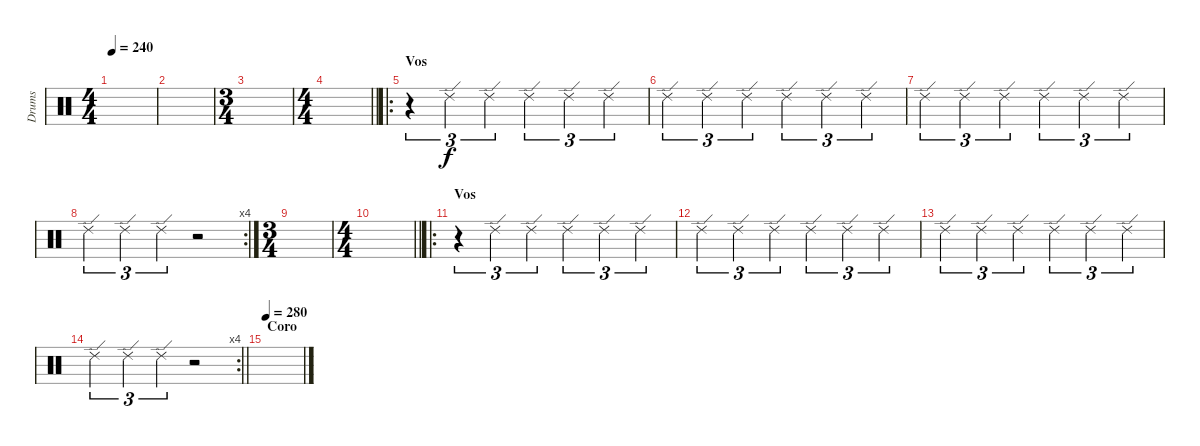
\track ("Drums" "Drums") {instrument percussion}
\staff {score}
\articulation defaults
\ts (4 4)
\tempo 240
\clef neutral
\ks c
|
|
\ts (3 4)
|
\ts (4 4)
\barLineRight lightlight
|
\ro
\section ("" "Vos")
r.4{tu (3 2)} "Ride (edge) 2".4{tu (3 2)} "Ride (edge) 2".4{tu (3 2)} "Ride (edge) 2".4{tu (3 2)} "Ride (edge) 2".4{tu (3 2)} "Ride (edge) 2".4{tu (3 2)} |
"Ride (edge) 2".4{tu (3 2)} "Ride (edge) 2".4{tu (3 2)} "Ride (edge) 2".4{tu (3 2)} "Ride (edge) 2".4{tu (3 2)} "Ride (edge) 2".4{tu (3 2)} "Ride (edge) 2".4{tu (3 2)} |
"Ride (edge) 2".4{tu (3 2)} "Ride (edge) 2".4{tu (3 2)} "Ride (edge) 2".4{tu (3 2)} "Ride (edge) 2".4{tu (3 2)} "Ride (edge) 2".4{tu (3 2)} "Ride (edge) 2".4{tu (3 2)} |
\rc 4 "Ride (edge) 2".4{tu (3 2)} "Ride (edge) 2".4{tu (3 2)} "Ride (edge) 2".4{tu (3 2)}
r.2 |
\ts (3 4)
|
\ts (4 4)
\barLineRight lightlight
|
\ro
\section ("" "Vos")
r.4{tu (3 2)} "Ride (edge) 2".4{tu (3 2)} "Ride (edge) 2".4{tu (3 2)} "Ride (edge) 2".4{tu (3 2)} "Ride (edge) 2".4{tu (3 2)} "Ride (edge) 2".4{tu (3 2)} |
"Ride (edge) 2".4{tu (3 2)} "Ride (edge) 2".4{tu (3 2)} "Ride (edge) 2".4{tu (3 2)} "Ride (edge) 2".4{tu (3 2)} "Ride (edge) 2".4{tu (3 2)} "Ride (edge) 2".4{tu (3 2)} |
"Ride (edge) 2".4{tu (3 2)} "Ride (edge) 2".4{tu (3 2)} "Ride (edge) 2".4{tu (3 2)} "Ride (edge) 2".4{tu (3 2)} "Ride (edge) 2".4{tu (3 2)} "Ride (edge) 2".4{tu (3 2)} |
\rc 4
\barLineRight lightlight "Ride (edge) 2".4{tu (3 2)} "Ride (edge) 2".4{tu (3 2)} "Ride (edge) 2".4{tu (3 2)}
r.2 |
\section ("" "Coro")
\tempo 280
